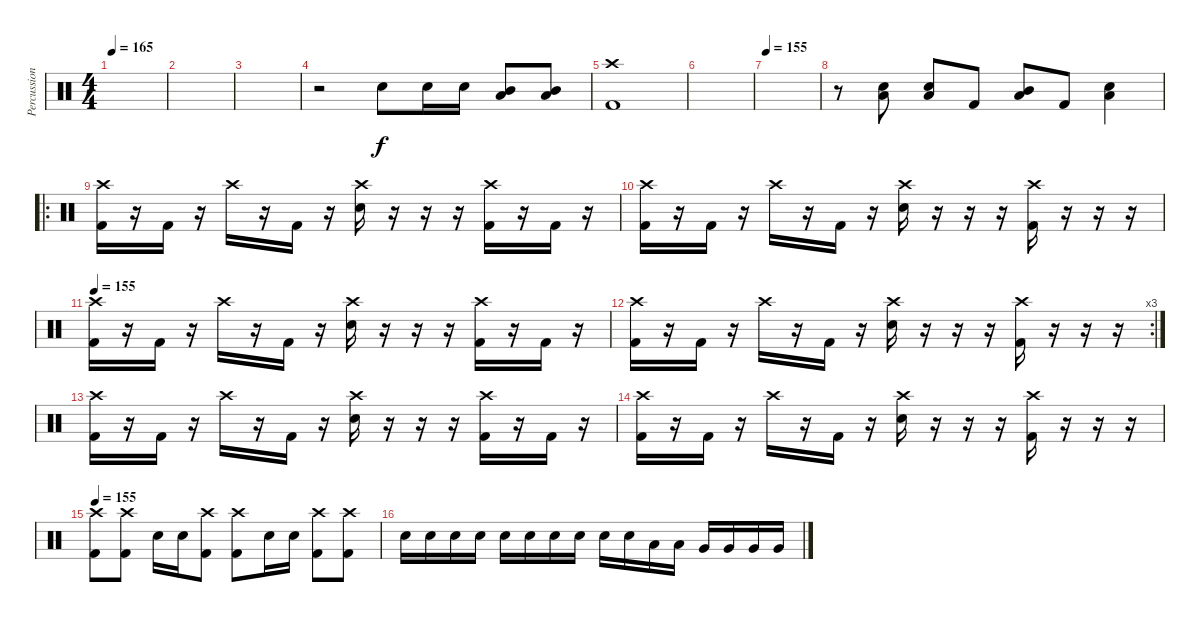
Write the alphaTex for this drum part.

\track ("Percussion" "Percussion") {instrument percussion}
\staff {score}
\articulation defaults
\ts (4 4)
\tempo 165
\clef neutral
\ks c
|
|
|
r.2 "Snare (hit) 2".8 "Snare (hit) 2".16 "Snare (hit) 2".16 ("Mid Tom (hit)" "Low Tom (hit)").8 ("Mid Tom (hit)" "Low Tom (hit)").8 |
("Crash high (hit)" "Kick (hit) 2").1 |
|
\tempo 155
|
r.8 ("Low Tom (hit)" "Snare (hit) 2").8 ("Low Tom (hit)" "Snare (hit) 2").8 "Kick (hit) 2".8 ("Mid Tom (hit)" "Low Tom (hit)").8 "Kick (hit) 2".8 ("Low Tom (hit)" "Snare (hit) 2").4 |
\ro
("Crash high (hit)" "Kick (hit) 2").16 r.16 "Kick (hit) 2".16 r.16 "Crash high (hit)".16 r.16 "Kick (hit) 2".16 r.16 ("Crash high (hit)" "Snare (hit) 2").16 r.16 r.16 r.16 ("Crash high (hit)" "Kick (hit) 2").16 r.16 "Kick (hit) 2".16 r.16 |
("Crash high (hit)" "Kick (hit) 2").16 r.16 "Kick (hit) 2".16 r.16 "Crash high (hit)".16 r.16 "Kick (hit) 2".16 r.16 ("Crash high (hit)" "Snare (hit) 2").16 r.16 r.16 r.16 ("Crash high (hit)" "Kick (hit) 2").16 r.16 r.16 r.16 |
\tempo 155
("Crash high (hit)" "Kick (hit) 2").16 r.16 "Kick (hit) 2".16 r.16 "Crash high (hit)".16 r.16 "Kick (hit) 2".16 r.16 ("Crash high (hit)" "Snare (hit) 2").16 r.16 r.16 r.16 ("Crash high (hit)" "Kick (hit) 2").16 r.16 "Kick (hit) 2".16 r.16 |
\rc 3
("Crash high (hit)" "Kick (hit) 2").16 r.16 "Kick (hit) 2".16 r.16 "Crash high (hit)".16 r.16 "Kick (hit) 2".16 r.16 ("Crash high (hit)" "Snare (hit) 2").16 r.16 r.16 r.16 ("Crash high (hit)" "Kick (hit) 2").16 r.16 r.16 r.16 |
("Crash high (hit)" "Kick (hit) 2").16 r.16 "Kick (hit) 2".16 r.16 "Crash high (hit)".16 r.16 "Kick (hit) 2".16 r.16 ("Crash high (hit)" "Snare (hit) 2").16 r.16 r.16 r.16 ("Crash high (hit)" "Kick (hit) 2").16 r.16 "Kick (hit) 2".16 r.16 |
("Crash high (hit)" "Kick (hit) 2").16 r.16 "Kick (hit) 2".16 r.16 "Crash high (hit)".16 r.16 "Kick (hit) 2".16 r.16 ("Crash high (hit)" "Snare (hit) 2").16 r.16 r.16 r.16 ("Crash high (hit)" "Kick (hit) 2").16 r.16 r.16 r.16 |
\tempo 155
("Crash high (hit)" "Kick (hit) 2").8 ("Crash high (hit)" "Kick (hit) 2").8 "Snare (hit) 2".16 "Snare (hit) 2".16 ("Crash high (hit)" "Kick (hit) 2").8 ("Crash high (hit)" "Kick (hit) 2").8 "Snare (hit) 2".16 "Snare (hit) 2".16 ("Crash high (hit)" "Kick (hit) 2").8 ("Crash high (hit)" "Kick (hit) 2").8 |
"Snare (hit) 2".16 "Snare (hit) 2".16 "Snare (hit) 2".16 "Snare (hit) 2".16 "Snare (hit) 2".16 "Snare (hit) 2".16 "Snare (hit) 2".16 "Snare (hit) 2".16 "Snare (hit) 2".16 "Snare (hit) 2".16 "Low Tom (hit)".16 "Low Tom (hit)".16 "Very Low Tom (hit)".16 "Very Low Tom (hit)".16 "Very Low Tom (hit)".16 "Very Low Tom (hit)".16
